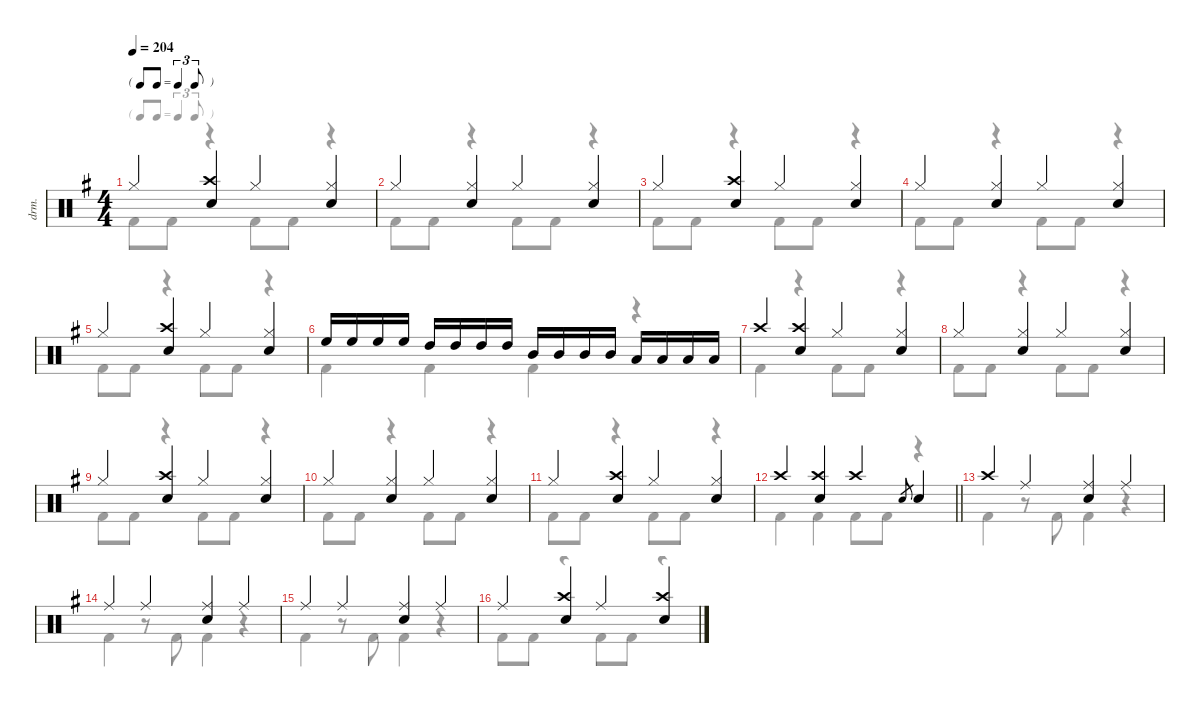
\defaultSystemsLayout 4
\hideDynamics
\bracketExtendMode nobrackets
\otherSystemsTrackNameOrientation horizontal
\track ("Lars Ulrich" "drm.") {defaultSystemsLayout 8 instrument percussion}
\staff {score}
\articulation defaults
\voice
\ts (4 4)
\tf triplet8th
\tempo 204
\clef neutral
\ks eminor "Hi-Hat (closed)"{acc forcenatural}.4{dy f beam Up}
("Crash high (hit)"{acc forcenatural} "Snare (hit) 2"{acc forcenatural}).4{beam Up} "Hi-Hat (closed)"{acc forcenatural}.4{beam Up} ("Hi-Hat (closed)"{acc forcenatural} "Snare (hit) 2"{acc forcenatural}).4{beam Up} |
"Hi-Hat (closed)"{acc forcenatural}.4{beam Up} ("Hi-Hat (closed)"{acc forcenatural} "Snare (hit) 2"{acc forcenatural}).4{beam Up} "Hi-Hat (closed)"{acc forcenatural}.4{beam Up} ("Hi-Hat (closed)"{acc forcenatural} "Snare (hit) 2"{acc forcenatural}).4{beam Up} |
"Hi-Hat (closed)"{acc forcenatural}.4{beam Up} ("Crash high (hit)"{acc forcenatural} "Snare (hit) 2"{acc forcenatural}).4{beam Up} "Hi-Hat (closed)"{acc forcenatural}.4{beam Up} ("Hi-Hat (closed)"{acc forcenatural} "Snare (hit) 2"{acc forcenatural}).4{beam Up} |
"Hi-Hat (closed)"{acc forcenatural}.4{beam Up} ("Hi-Hat (closed)"{acc forcenatural} "Snare (hit) 2"{acc forcenatural}).4{beam Up} "Hi-Hat (closed)"{acc forcenatural}.4{beam Up} ("Hi-Hat (closed)"{acc forcenatural} "Snare (hit) 2"{acc forcenatural}).4{beam Up} |
"Hi-Hat (closed)"{acc forcenatural}.4{beam Up} ("Crash high (hit)"{acc forcenatural} "Snare (hit) 2"{acc forcenatural}).4{beam Up} "Hi-Hat (closed)"{acc forcenatural}.4{beam Up} ("Hi-Hat (closed)"{acc forcenatural} "Snare (hit) 2"{acc forcenatural}).4{beam Up} |
"High Floor Tom (hit)"{acc forcenatural}.16{beam Up} "High Floor Tom (hit)"{acc forcenatural}.16{beam Up} "High Floor Tom (hit)"{acc forcenatural}.16{beam Up} "High Floor Tom (hit)"{acc forcenatural}.16{beam Up} "High Tom (hit)"{acc forcenatural}.16{beam Up} "High Tom (hit)"{acc forcenatural}.16{beam Up} "High Tom (hit)"{acc forcenatural}.16{beam Up} "High Tom (hit)"{acc forcenatural}.16{beam Up} "Mid Tom (hit)"{acc forcenatural}.16{beam Up} "Mid Tom (hit)"{acc forcenatural}.16{beam Up} "Mid Tom (hit)"{acc forcenatural}.16{beam Up} "Mid Tom (hit)"{acc forcenatural}.16{beam Up} "Low Tom (hit)"{acc forcenatural}.16{beam Up} "Low Tom (hit)"{acc forcenatural}.16{beam Up} "Low Tom (hit)"{acc forcenatural}.16{beam Up} "Low Tom (hit)"{acc forcenatural}.16{beam Up} |
"Crash high (hit)"{acc forcenatural}.4{beam Up} ("Crash high (hit)"{acc forcenatural} "Snare (hit) 2"{acc forcenatural}).4{beam Up} "Hi-Hat (closed)"{acc forcenatural}.4{beam Up} ("Hi-Hat (closed)"{acc forcenatural} "Snare (hit) 2"{acc forcenatural}).4{beam Up} |
"Hi-Hat (closed)"{acc forcenatural}.4{beam Up} ("Hi-Hat (closed)"{acc forcenatural} "Snare (hit) 2"{acc forcenatural}).4{beam Up} "Hi-Hat (closed)"{acc forcenatural}.4{beam Up} ("Hi-Hat (closed)"{acc forcenatural} "Snare (hit) 2"{acc forcenatural}).4{beam Up} |
"Hi-Hat (closed)"{acc forcenatural}.4{beam Up} ("Crash high (hit)"{acc forcenatural} "Snare (hit) 2"{acc forcenatural}).4{beam Up} "Hi-Hat (closed)"{acc forcenatural}.4{beam Up} ("Hi-Hat (closed)"{acc forcenatural} "Snare (hit) 2"{acc forcenatural}).4{beam Up} |
"Hi-Hat (closed)"{acc forcenatural}.4{beam Up} ("Hi-Hat (closed)"{acc forcenatural} "Snare (hit) 2"{acc forcenatural}).4{beam Up} "Hi-Hat (closed)"{acc forcenatural}.4{beam Up} ("Hi-Hat (closed)"{acc forcenatural} "Snare (hit) 2"{acc forcenatural}).4{beam Up} |
"Hi-Hat (closed)"{acc forcenatural}.4{beam Up} ("Crash high (hit)"{acc forcenatural} "Snare (hit) 2"{acc forcenatural}).4{beam Up} "Hi-Hat (closed)"{acc forcenatural}.4{beam Up} ("Hi-Hat (closed)"{acc forcenatural} "Snare (hit) 2"{acc forcenatural}).4{beam Up} |
\barLineRight lightlight "Crash high (hit)"{acc forcenatural}.4{beam Up}
("Crash high (hit)"{acc forcenatural} "Snare (hit) 2"{acc forcenatural}).4{beam Up} "Crash high (hit)"{acc forcenatural}.4{beam Up} "Snare (hit) 2"{acc forcenatural}.8{gr dy mf beam Up} "Snare (hit) 2"{acc forcenatural}.4{dy f beam Up} |
"Crash high (hit)"{acc forcenatural}.4{beam Up} "Ride (middle)"{acc forcenatural}.4{beam Up} ("Ride (middle)"{acc forcenatural} "Snare (hit) 2"{acc forcenatural}).4{beam Up} "Ride (middle)"{acc forcenatural}.4{beam Up} |
"Ride (middle)"{acc forcenatural}.4{beam Up} "Ride (middle)"{acc forcenatural}.4{beam Up} ("Ride (middle)"{acc forcenatural} "Snare (hit) 2"{acc forcenatural}).4{beam Up} "Ride (middle)"{acc forcenatural}.4{beam Up} |
"Ride (middle)"{acc forcenatural}.4{beam Up} "Ride (middle)"{acc forcenatural}.4{beam Up} ("Ride (middle)"{acc forcenatural} "Snare (hit) 2"{acc forcenatural}).4{beam Up} "Ride (middle)"{acc forcenatural}.4{beam Up} |
"Ride (middle)"{acc forcenatural}.4{beam Up} ("Crash high (hit)"{acc forcenatural} "Snare (hit) 2"{acc forcenatural}).4{beam Up} "Ride (middle)"{acc forcenatural}.4{beam Up} ("Crash high (hit)"{acc forcenatural} "Snare (hit) 2"{acc forcenatural}).4{beam Up}
\voice
\clef neutral
\ottava regular
\simile none
\ks eminor "Kick (hit) 2"{acc forcenatural}.8{dy f beam Down} "Kick (hit) 2"{acc forcenatural}.8{beam Down}
r.4{beam Down} "Kick (hit) 2"{acc forcenatural}.8{beam Down} "Kick (hit) 2"{acc forcenatural}.8{beam Down} r.4{beam Down} |
"Kick (hit) 2"{acc forcenatural}.8{beam Down} "Kick (hit) 2"{acc forcenatural}.8{beam Down} r.4{beam Down} "Kick (hit) 2"{acc forcenatural}.8{beam Down} "Kick (hit) 2"{acc forcenatural}.8{beam Down} r.4{beam Down} |
"Kick (hit) 2"{acc forcenatural}.8{beam Down} "Kick (hit) 2"{acc forcenatural}.8{beam Down} r.4{beam Down} "Kick (hit) 2"{acc forcenatural}.8{beam Down} "Kick (hit) 2"{acc forcenatural}.8{beam Down} r.4{beam Down} |
"Kick (hit) 2"{acc forcenatural}.8{beam Down} "Kick (hit) 2"{acc forcenatural}.8{beam Down} r.4{beam Down} "Kick (hit) 2"{acc forcenatural}.8{beam Down} "Kick (hit) 2"{acc forcenatural}.8{beam Down} r.4{beam Down} |
"Kick (hit) 2"{acc forcenatural}.8{beam Down} "Kick (hit) 2"{acc forcenatural}.8{beam Down} r.4{beam Down} "Kick (hit) 2"{acc forcenatural}.8{beam Down} "Kick (hit) 2"{acc forcenatural}.8{beam Down} r.4{beam Down} |
"Kick (hit) 2"{acc forcenatural}.4{beam Down} "Kick (hit) 2"{acc forcenatural}.4{beam Down} "Kick (hit) 2"{acc forcenatural}.4{beam Down} r.4{beam Down} |
"Kick (hit) 2"{acc forcenatural}.4{beam Down} r.4{beam Down} "Kick (hit) 2"{acc forcenatural}.8{beam Down} "Kick (hit) 2"{acc forcenatural}.8{beam Down} r.4{beam Down} |
"Kick (hit) 2"{acc forcenatural}.8{beam Down} "Kick (hit) 2"{acc forcenatural}.8{beam Down} r.4{beam Down} "Kick (hit) 2"{acc forcenatural}.8{beam Down} "Kick (hit) 2"{acc forcenatural}.8{beam Down} r.4{beam Down} |
"Kick (hit) 2"{acc forcenatural}.8{beam Down} "Kick (hit) 2"{acc forcenatural}.8{beam Down} r.4{beam Down} "Kick (hit) 2"{acc forcenatural}.8{beam Down} "Kick (hit) 2"{acc forcenatural}.8{beam Down} r.4{beam Down} |
"Kick (hit) 2"{acc forcenatural}.8{beam Down} "Kick (hit) 2"{acc forcenatural}.8{beam Down} r.4{beam Down} "Kick (hit) 2"{acc forcenatural}.8{beam Down} "Kick (hit) 2"{acc forcenatural}.8{beam Down} r.4{beam Down} |
"Kick (hit) 2"{acc forcenatural}.8{beam Down} "Kick (hit) 2"{acc forcenatural}.8{beam Down} r.4{beam Down} "Kick (hit) 2"{acc forcenatural}.8{beam Down} "Kick (hit) 2"{acc forcenatural}.8{beam Down} r.4{beam Down} |
\barLineRight lightlight "Kick (hit) 2"{acc forcenatural}.4{beam Down} "Kick (hit) 2"{acc forcenatural}.4{beam Down} "Kick (hit) 2"{acc forcenatural}.8{beam Down} "Kick (hit) 2"{acc forcenatural}.8{beam Down}
r.4{beam Down} |
"Kick (hit) 2"{acc forcenatural}.4{beam Down} r.8{beam Down} "Kick (hit) 2"{acc forcenatural}.8{beam Down} "Kick (hit) 2"{acc forcenatural}.4{beam Down} r.4{beam Down} |
"Kick (hit) 2"{acc forcenatural}.4{beam Down} r.8{beam Down} "Kick (hit) 2"{acc forcenatural}.8{beam Down} "Kick (hit) 2"{acc forcenatural}.4{beam Down} r.4{beam Down} |
"Kick (hit) 2"{acc forcenatural}.4{beam Down} r.8{beam Down} "Kick (hit) 2"{acc forcenatural}.8{beam Down} "Kick (hit) 2"{acc forcenatural}.4{beam Down} r.4{beam Down} |
"Kick (hit) 2"{acc forcenatural}.8{beam Down} "Kick (hit) 2"{acc forcenatural}.8{beam Down} r.4{beam Down} "Kick (hit) 2"{acc forcenatural}.8{beam Down} "Kick (hit) 2"{acc forcenatural}.8{beam Down} r.4{beam Down}
